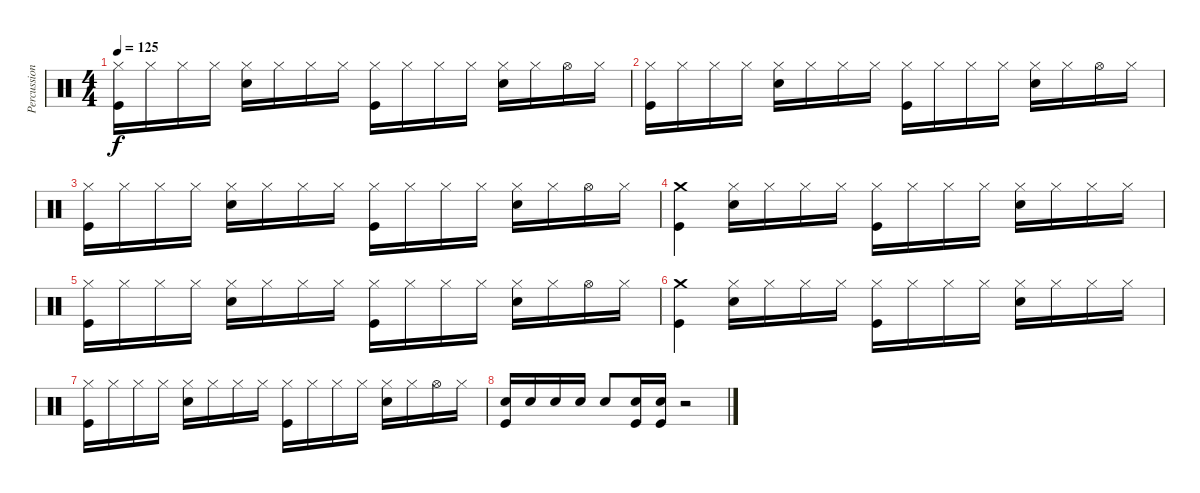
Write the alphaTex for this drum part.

\track ("Percussion" "Percussion") {instrument percussion}
\staff {score}
\articulation defaults
\ts (4 4)
\tempo 125
\clef neutral
\ks c
("Kick (hit)" "Hi-Hat (closed)").16{dy f} "Hi-Hat (closed)".16 "Hi-Hat (closed)".16 "Hi-Hat (closed)".16 ("Hi-Hat (closed)" "Snare (hit) 2").16 "Hi-Hat (closed)".16 "Hi-Hat (closed)".16 "Hi-Hat (closed)".16 ("Kick (hit)" "Hi-Hat (closed)").16 "Hi-Hat (closed)".16 "Hi-Hat (closed)".16 "Hi-Hat (closed)".16 ("Hi-Hat (closed)" "Snare (hit) 2").16 "Hi-Hat (closed)".16 "Hi-Hat (open)".16 "Hi-Hat (closed)".16 |
("Kick (hit)" "Hi-Hat (closed)").16 "Hi-Hat (closed)".16 "Hi-Hat (closed)".16 "Hi-Hat (closed)".16 ("Hi-Hat (closed)" "Snare (hit) 2").16 "Hi-Hat (closed)".16 "Hi-Hat (closed)".16 "Hi-Hat (closed)".16 ("Kick (hit)" "Hi-Hat (closed)").16 "Hi-Hat (closed)".16 "Hi-Hat (closed)".16 "Hi-Hat (closed)".16 ("Hi-Hat (closed)" "Snare (hit) 2").16 "Hi-Hat (closed)".16 "Hi-Hat (open)".16 "Hi-Hat (closed)".16 |
("Kick (hit)" "Hi-Hat (closed)").16 "Hi-Hat (closed)".16 "Hi-Hat (closed)".16 "Hi-Hat (closed)".16 ("Hi-Hat (closed)" "Snare (hit) 2").16 "Hi-Hat (closed)".16 "Hi-Hat (closed)".16 "Hi-Hat (closed)".16 ("Kick (hit)" "Hi-Hat (closed)").16 "Hi-Hat (closed)".16 "Hi-Hat (closed)".16 "Hi-Hat (closed)".16 ("Hi-Hat (closed)" "Snare (hit) 2").16 "Hi-Hat (closed)".16 "Hi-Hat (open)".16 "Hi-Hat (closed)".16 |
("Kick (hit)" "Crash medium (hit)").4 ("Hi-Hat (closed)" "Snare (hit) 2").16 "Hi-Hat (closed)".16 "Hi-Hat (closed)".16 "Hi-Hat (closed)".16 ("Kick (hit)" "Hi-Hat (closed)").16 "Hi-Hat (closed)".16 "Hi-Hat (closed)".16 "Hi-Hat (closed)".16 ("Hi-Hat (closed)" "Snare (hit) 2").16 "Hi-Hat (closed)".16 "Hi-Hat (closed)".16 "Hi-Hat (closed)".16 |
("Kick (hit)" "Hi-Hat (closed)").16 "Hi-Hat (closed)".16 "Hi-Hat (closed)".16 "Hi-Hat (closed)".16 ("Hi-Hat (closed)" "Snare (hit) 2").16 "Hi-Hat (closed)".16 "Hi-Hat (closed)".16 "Hi-Hat (closed)".16 ("Kick (hit)" "Hi-Hat (closed)").16 "Hi-Hat (closed)".16 "Hi-Hat (closed)".16 "Hi-Hat (closed)".16 ("Hi-Hat (closed)" "Snare (hit) 2").16 "Hi-Hat (closed)".16 "Hi-Hat (open)".16 "Hi-Hat (closed)".16 |
("Kick (hit)" "Crash medium (hit)").4 ("Hi-Hat (closed)" "Snare (hit) 2").16 "Hi-Hat (closed)".16 "Hi-Hat (closed)".16 "Hi-Hat (closed)".16 ("Kick (hit)" "Hi-Hat (closed)").16 "Hi-Hat (closed)".16 "Hi-Hat (closed)".16 "Hi-Hat (closed)".16 ("Hi-Hat (closed)" "Snare (hit) 2").16 "Hi-Hat (closed)".16 "Hi-Hat (closed)".16 "Hi-Hat (closed)".16 |
("Kick (hit)" "Hi-Hat (closed)").16 "Hi-Hat (closed)".16 "Hi-Hat (closed)".16 "Hi-Hat (closed)".16 ("Hi-Hat (closed)" "Snare (hit) 2").16 "Hi-Hat (closed)".16 "Hi-Hat (closed)".16 "Hi-Hat (closed)".16 ("Kick (hit)" "Hi-Hat (closed)").16 "Hi-Hat (closed)".16 "Hi-Hat (closed)".16 "Hi-Hat (closed)".16 ("Hi-Hat (closed)" "Snare (hit) 2").16 "Hi-Hat (closed)".16 "Hi-Hat (open)".16 "Hi-Hat (closed)".16 |
("Kick (hit)" "Snare (hit) 2").16 "Snare (hit) 2".16 "Snare (hit) 2".16 "Snare (hit) 2".16 "Snare (hit) 2".8 ("Kick (hit)" "Snare (hit) 2").16 ("Kick (hit)" "Snare (hit) 2").16 r.2
